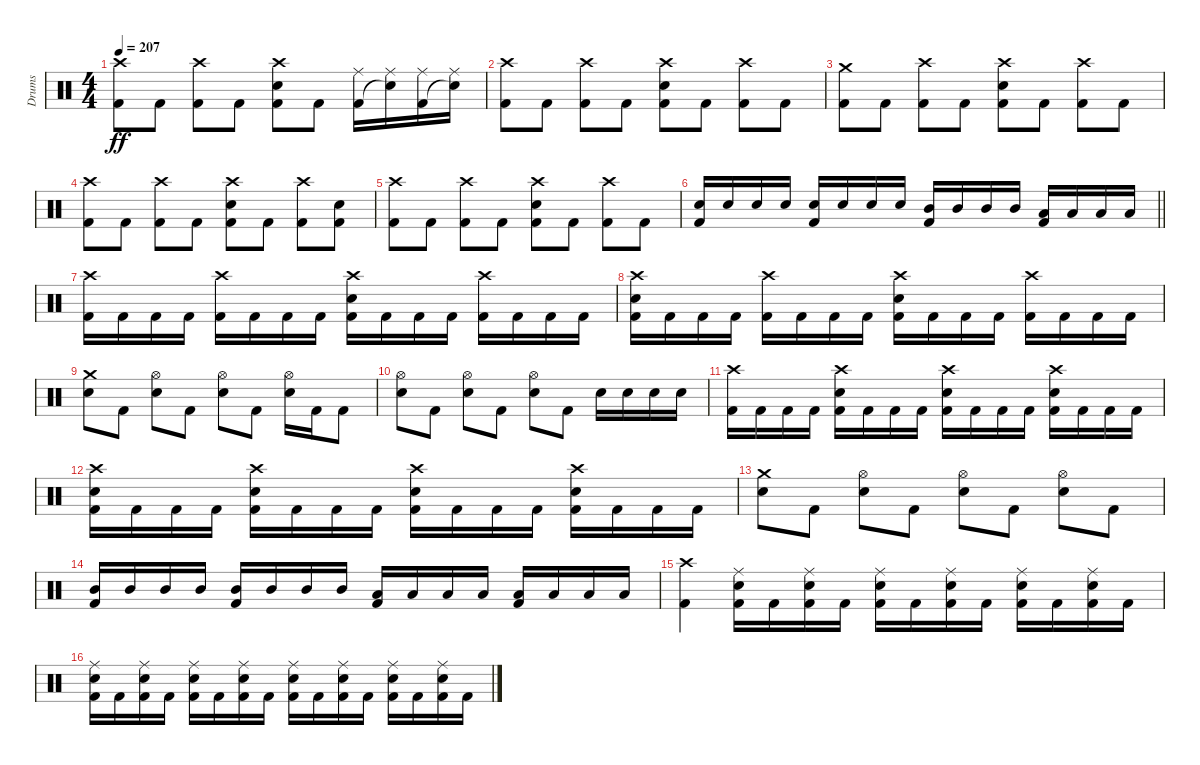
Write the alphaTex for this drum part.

\track ("Drums" "Drums") {instrument percussion}
\staff {score}
\articulation defaults
\ts (4 4)
\tempo 207
\clef neutral
\ks c
("Crash high (hit)" "Kick (hit) 2").8{dy ff} "Kick (hit) 2".8 ("Crash high (hit)" "Kick (hit) 2").8 "Kick (hit) 2".8 ("Crash high (hit)" "Snare (hit) 2" "Kick (hit) 2").8 "Kick (hit) 2".8 ("Ride (middle)" "Kick (hit) 2").16 ("Ride (middle)" "Snare (hit)"{t}).16 ("Ride (middle)" "Kick (hit) 2").16 ("Ride (middle)" "Snare (hit)"{t}).16 |
("Crash high (hit)" "Kick (hit) 2").8 "Kick (hit) 2".8 ("Crash high (hit)" "Kick (hit) 2").8 "Kick (hit) 2".8 ("Crash high (hit)" "Snare (hit) 2" "Kick (hit) 2").8 "Kick (hit) 2".8 ("Crash high (hit)" "Kick (hit) 2").8 "Kick (hit) 2".8 |
("Crash medium (hit)" "Kick (hit) 2").8 "Kick (hit) 2".8 ("Crash high (hit)" "Kick (hit) 2").8 "Kick (hit) 2".8 ("Crash high (hit)" "Snare (hit) 2" "Kick (hit) 2").8 "Kick (hit) 2".8 ("Crash high (hit)" "Kick (hit) 2").8 "Kick (hit) 2".8 |
("Crash high (hit)" "Kick (hit) 2").8 "Kick (hit) 2".8 ("Crash high (hit)" "Kick (hit) 2").8 "Kick (hit) 2".8 ("Crash high (hit)" "Snare (hit) 2" "Kick (hit) 2").8 "Kick (hit) 2".8 ("Crash high (hit)" "Kick (hit) 2").8 ("Snare (hit) 2" "Kick (hit) 2").8 |
("Crash high (hit)" "Kick (hit) 2").8 "Kick (hit) 2".8 ("Crash high (hit)" "Kick (hit) 2").8 "Kick (hit) 2".8 ("Crash high (hit)" "Snare (hit) 2" "Kick (hit) 2").8 "Kick (hit) 2".8 ("Crash high (hit)" "Kick (hit) 2").8 "Kick (hit) 2".8 |
\barLineRight lightlight
("Snare (hit) 2" "Kick (hit) 2").16 "Snare (hit) 2".16 "Snare (hit) 2".16 "Snare (hit) 2".16 ("Snare (hit) 2" "Kick (hit) 2").16 "Snare (hit) 2".16 "Snare (hit) 2".16 "Snare (hit) 2".16 ("Mid Tom (hit)" "Kick (hit) 2").16 "Mid Tom (hit)".16 "Mid Tom (hit)".16 "Mid Tom (hit)".16 ("Low Tom (hit)" "Kick (hit) 2").16 "Low Tom (hit)".16 "Low Tom (hit)".16 "Low Tom (hit)".16 |
("Crash high (hit)" "Kick (hit) 2").16 "Kick (hit) 2".16 "Kick (hit) 2".16 "Kick (hit) 2".16 ("Crash high (hit)" "Kick (hit) 2").16 "Kick (hit) 2".16 "Kick (hit) 2".16 "Kick (hit) 2".16 ("Crash high (hit)" "Snare (hit) 2" "Kick (hit) 2").16 "Kick (hit) 2".16 "Kick (hit) 2".16 "Kick (hit) 2".16 ("Crash high (hit)" "Kick (hit) 2").16 "Kick (hit) 2".16 "Kick (hit) 2".16 "Kick (hit) 2".16 |
("Crash high (hit)" "Snare (hit) 2" "Kick (hit) 2").16 "Kick (hit) 2".16 "Kick (hit) 2".16 "Kick (hit) 2".16 ("Crash high (hit)" "Kick (hit) 2").16 "Kick (hit) 2".16 "Kick (hit) 2".16 "Kick (hit) 2".16 ("Crash high (hit)" "Snare (hit) 2" "Kick (hit) 2").16 "Kick (hit) 2".16 "Kick (hit) 2".16 "Kick (hit) 2".16 ("Crash high (hit)" "Kick (hit) 2").16 "Kick (hit) 2".16 "Kick (hit) 2".16 "Kick (hit) 2".16 |
("Crash medium (hit)" "Snare (hit) 2").8 "Kick (hit) 2".8 ("Hi-Hat (open)" "Snare (hit) 2").8 "Kick (hit) 2".8 ("Hi-Hat (open)" "Snare (hit) 2").8 "Kick (hit) 2".8 ("Hi-Hat (open)" "Snare (hit) 2").16 "Kick (hit) 2".16 "Kick (hit) 2".8 |
("Hi-Hat (open)" "Snare (hit) 2").8 "Kick (hit) 2".8 ("Hi-Hat (open)" "Snare (hit) 2").8 "Kick (hit) 2".8 ("Hi-Hat (open)" "Snare (hit) 2").8 "Kick (hit) 2".8 "Snare (hit) 2".16 "Snare (hit) 2".16 "Snare (hit) 2".16 "Snare (hit) 2".16 |
("Crash high (hit)" "Kick (hit) 2").16 "Kick (hit) 2".16 "Kick (hit) 2".16 "Kick (hit) 2".16 ("Crash high (hit)" "Snare (hit) 2" "Kick (hit) 2").16 "Kick (hit) 2".16 "Kick (hit) 2".16 "Kick (hit) 2".16 ("Crash high (hit)" "Snare (hit) 2" "Kick (hit) 2").16 "Kick (hit) 2".16 "Kick (hit) 2".16 "Kick (hit) 2".16 ("Crash high (hit)" "Snare (hit) 2" "Kick (hit) 2").16 "Kick (hit) 2".16 "Kick (hit) 2".16 "Kick (hit) 2".16 |
("Crash high (hit)" "Snare (hit) 2" "Kick (hit) 2").16 "Kick (hit) 2".16 "Kick (hit) 2".16 "Kick (hit) 2".16 ("Crash high (hit)" "Snare (hit) 2" "Kick (hit) 2").16 "Kick (hit) 2".16 "Kick (hit) 2".16 "Kick (hit) 2".16 ("Crash high (hit)" "Snare (hit) 2" "Kick (hit) 2").16 "Kick (hit) 2".16 "Kick (hit) 2".16 "Kick (hit) 2".16 ("Crash high (hit)" "Snare (hit) 2" "Kick (hit) 2").16 "Kick (hit) 2".16 "Kick (hit) 2".16 "Kick (hit) 2".16 |
("Crash medium (hit)" "Snare (hit) 2").8 "Kick (hit) 2".8 ("Hi-Hat (open)" "Snare (hit) 2").8 "Kick (hit) 2".8 ("Hi-Hat (open)" "Snare (hit) 2").8 "Kick (hit) 2".8 ("Hi-Hat (open)" "Snare (hit) 2").8 "Kick (hit) 2".8 |
("Mid Tom (hit)" "Kick (hit) 2").16 "Mid Tom (hit)".16 "Mid Tom (hit)".16 "Mid Tom (hit)".16 ("Mid Tom (hit)" "Kick (hit) 2").16 "Mid Tom (hit)".16 "Mid Tom (hit)".16 "Mid Tom (hit)".16 ("Low Tom (hit)" "Kick (hit) 2").16 "Low Tom (hit)".16 "Low Tom (hit)".16 "Low Tom (hit)".16 ("Low Tom (hit)" "Kick (hit) 2").16 "Low Tom (hit)".16 "Low Tom (hit)".16 "Low Tom (hit)".16 |
("Crash high (hit)" "Kick (hit) 2").4 ("Ride (middle)" "Snare (hit) 2" "Kick (hit) 2").16 "Kick (hit) 2".16 ("Ride (middle)" "Snare (hit) 2" "Kick (hit) 2").16 "Kick (hit) 2".16 ("Ride (middle)" "Snare (hit) 2" "Kick (hit) 2").16 "Kick (hit) 2".16 ("Ride (middle)" "Snare (hit) 2" "Kick (hit) 2").16 "Kick (hit) 2".16 ("Ride (middle)" "Snare (hit) 2" "Kick (hit) 2").16 "Kick (hit) 2".16 ("Ride (middle)" "Snare (hit) 2" "Kick (hit) 2").16 "Kick (hit) 2".16 |
("Ride (middle)" "Snare (hit) 2" "Kick (hit) 2").16 "Kick (hit) 2".16 ("Ride (middle)" "Snare (hit) 2" "Kick (hit) 2").16 "Kick (hit) 2".16 ("Ride (middle)" "Snare (hit) 2" "Kick (hit) 2").16 "Kick (hit) 2".16 ("Ride (middle)" "Snare (hit) 2" "Kick (hit) 2").16 "Kick (hit) 2".16 ("Ride (middle)" "Snare (hit) 2" "Kick (hit) 2").16 "Kick (hit) 2".16 ("Ride (middle)" "Snare (hit) 2" "Kick (hit) 2").16 "Kick (hit) 2".16 ("Ride (middle)" "Snare (hit) 2" "Kick (hit) 2").16 "Kick (hit) 2".16 ("Ride (middle)" "Snare (hit) 2" "Kick (hit) 2").16 "Kick (hit) 2".16
